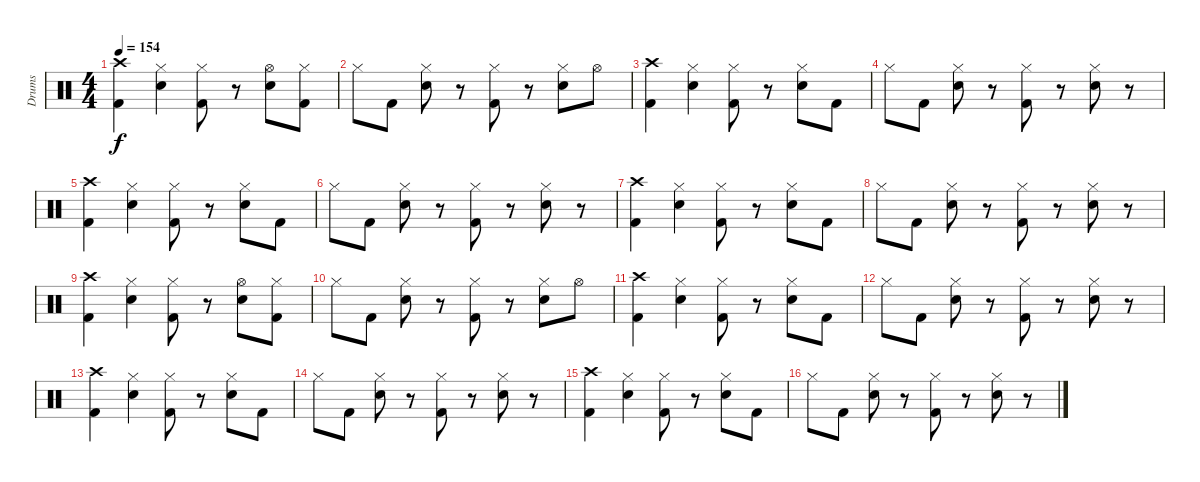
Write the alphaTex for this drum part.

\track ("Drums" "Drums") {instrument percussion}
\staff {score}
\articulation defaults
\ts (4 4)
\tempo 154
\clef neutral
\ks c
("Kick (hit) 2" "Crash high (hit)").4{dy f} ("Hi-Hat (closed)" "Snare (hit) 2").4 ("Kick (hit) 2" "Hi-Hat (closed)").8 r.8 ("Hi-Hat (open)" "Snare (hit) 2").8 ("Hi-Hat (closed)" "Kick (hit) 2").8 |
"Hi-Hat (closed)".8 "Kick (hit) 2".8 ("Hi-Hat (closed)" "Snare (hit) 2").8 r.8 ("Hi-Hat (closed)" "Kick (hit) 2").8 r.8 ("Hi-Hat (closed)" "Snare (hit) 2").8 "Hi-Hat (open)".8 |
("Crash high (hit)" "Kick (hit) 2").4 ("Hi-Hat (closed)" "Snare (hit) 2").4 ("Kick (hit) 2" "Hi-Hat (closed)").8 r.8 ("Snare (hit) 2" "Hi-Hat (closed)").8 "Kick (hit) 2".8 |
"Hi-Hat (closed)".8 "Kick (hit) 2".8 ("Snare (hit) 2" "Hi-Hat (closed)").8 r.8 ("Kick (hit) 2" "Hi-Hat (closed)").8 r.8 ("Snare (hit) 2" "Hi-Hat (closed)").8 r.8 |
("Kick (hit) 2" "Crash high (hit)").4 ("Hi-Hat (closed)" "Snare (hit) 2").4 ("Kick (hit) 2" "Hi-Hat (closed)").8 r.8 ("Hi-Hat (closed)" "Snare (hit) 2").8 "Kick (hit) 2".8 |
"Hi-Hat (closed)".8 "Kick (hit) 2".8 ("Hi-Hat (closed)" "Snare (hit) 2").8 r.8 ("Hi-Hat (closed)" "Kick (hit) 2").8 r.8 ("Snare (hit) 2" "Hi-Hat (closed)").8 r.8 |
("Kick (hit) 2" "Crash high (hit)").4 ("Snare (hit) 2" "Hi-Hat (closed)").4 ("Hi-Hat (closed)" "Kick (hit) 2").8 r.8 ("Hi-Hat (closed)" "Snare (hit) 2").8 "Kick (hit) 2".8 |
"Hi-Hat (closed)".8 "Kick (hit) 2".8 ("Snare (hit) 2" "Hi-Hat (closed)").8 r.8 ("Kick (hit) 2" "Hi-Hat (closed)").8 r.8 ("Snare (hit) 2" "Hi-Hat (closed)").8 r.8 |
("Kick (hit) 2" "Crash high (hit)").4 ("Snare (hit) 2" "Hi-Hat (closed)").4 ("Kick (hit) 2" "Hi-Hat (closed)").8 r.8 ("Hi-Hat (open)" "Snare (hit) 2").8 ("Hi-Hat (closed)" "Kick (hit) 2").8 |
"Hi-Hat (closed)".8 "Kick (hit) 2".8 ("Snare (hit) 2" "Hi-Hat (closed)").8 r.8 ("Kick (hit) 2" "Hi-Hat (closed)").8 r.8 ("Snare (hit) 2" "Hi-Hat (closed)").8 "Hi-Hat (open)".8 |
("Kick (hit) 2" "Crash high (hit)").4 ("Hi-Hat (closed)" "Snare (hit) 2").4 ("Hi-Hat (closed)" "Kick (hit) 2").8 r.8 ("Snare (hit) 2" "Hi-Hat (closed)").8 "Kick (hit) 2".8 |
"Hi-Hat (closed)".8 "Kick (hit) 2".8 ("Hi-Hat (closed)" "Snare (hit) 2").8 r.8 ("Kick (hit) 2" "Hi-Hat (closed)").8 r.8 ("Snare (hit) 2" "Hi-Hat (closed)").8 r.8 |
("Kick (hit) 2" "Crash high (hit)").4 ("Hi-Hat (closed)" "Snare (hit) 2").4 ("Kick (hit) 2" "Hi-Hat (closed)").8 r.8 ("Snare (hit) 2" "Hi-Hat (closed)").8 "Kick (hit) 2".8 |
"Hi-Hat (closed)".8 "Kick (hit) 2".8 ("Snare (hit) 2" "Hi-Hat (closed)").8 r.8 ("Hi-Hat (closed)" "Kick (hit) 2").8 r.8 ("Snare (hit) 2" "Hi-Hat (closed)").8 r.8 |
("Kick (hit) 2" "Crash high (hit)").4 ("Snare (hit) 2" "Hi-Hat (closed)").4 ("Kick (hit) 2" "Hi-Hat (closed)").8 r.8 ("Hi-Hat (closed)" "Snare (hit) 2").8 "Kick (hit) 2".8 |
"Hi-Hat (closed)".8 "Kick (hit) 2".8 ("Hi-Hat (closed)" "Snare (hit) 2").8 r.8 ("Hi-Hat (closed)" "Kick (hit) 2").8 r.8 ("Snare (hit) 2" "Hi-Hat (closed)").8 r.8
